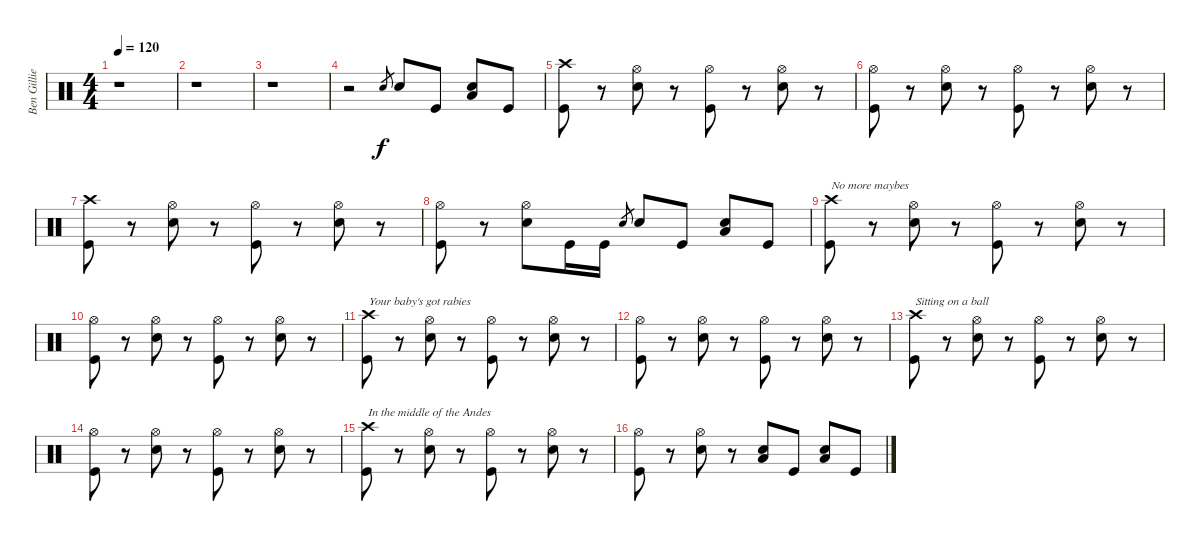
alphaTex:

\track ("Ben Gillies" "Ben Gillie") {instrument percussion}
\staff {score}
\articulation defaults
\ts (4 4)
\tempo 120
\clef neutral
\ks c
r.1{dy f} |
r.1 |
r.1 |
r.2 "Electric Snare (hit)".8{gr} "Electric Snare (hit)".8 "Kick (hit)".8 ("Electric Snare (hit)" "Low Floor Tom (hit)").8 "Kick (hit)".8 |
("Crash high (hit)" "Kick (hit)").8 r.8 ("Electric Snare (hit)" "Hi-Hat (open)").8 r.8 ("Hi-Hat (open)" "Kick (hit)").8 r.8 ("Electric Snare (hit)" "Hi-Hat (open)").8 r.8 |
("Hi-Hat (open)" "Kick (hit)").8 r.8 ("Electric Snare (hit)" "Hi-Hat (open)").8 r.8 ("Hi-Hat (open)" "Kick (hit)").8 r.8 ("Electric Snare (hit)" "Hi-Hat (open)").8 r.8 |
("Crash high (hit)" "Kick (hit)").8 r.8 ("Electric Snare (hit)" "Hi-Hat (open)").8 r.8 ("Hi-Hat (open)" "Kick (hit)").8 r.8 ("Electric Snare (hit)" "Hi-Hat (open)").8 r.8 |
("Hi-Hat (open)" "Kick (hit)").8 r.8 ("Electric Snare (hit)" "Hi-Hat (open)").8 "Kick (hit)".16 "Kick (hit)".16 "Electric Snare (hit)".8{gr} "Electric Snare (hit)".8 "Kick (hit)".8 ("Electric Snare (hit)" "Low Floor Tom (hit)").8 "Kick (hit)".8 |
("Crash high (hit)" "Kick (hit)").8{txt "No more maybes"} r.8 ("Electric Snare (hit)" "Hi-Hat (open)").8 r.8 ("Hi-Hat (open)" "Kick (hit)").8 r.8 ("Electric Snare (hit)" "Hi-Hat (open)").8 r.8 |
("Hi-Hat (open)" "Kick (hit)").8 r.8 ("Electric Snare (hit)" "Hi-Hat (open)").8 r.8 ("Hi-Hat (open)" "Kick (hit)").8 r.8 ("Electric Snare (hit)" "Hi-Hat (open)").8 r.8 |
("Crash high (hit)" "Kick (hit)").8{txt "Your baby's got rabies"} r.8 ("Electric Snare (hit)" "Hi-Hat (open)").8 r.8 ("Hi-Hat (open)" "Kick (hit)").8 r.8 ("Electric Snare (hit)" "Hi-Hat (open)").8 r.8 |
("Hi-Hat (open)" "Kick (hit)").8 r.8 ("Electric Snare (hit)" "Hi-Hat (open)").8 r.8 ("Hi-Hat (open)" "Kick (hit)").8 r.8 ("Electric Snare (hit)" "Hi-Hat (open)").8 r.8 |
("Crash high (hit)" "Kick (hit)").8{txt "Sitting on a ball"} r.8 ("Electric Snare (hit)" "Hi-Hat (open)").8 r.8 ("Hi-Hat (open)" "Kick (hit)").8 r.8 ("Electric Snare (hit)" "Hi-Hat (open)").8 r.8 |
("Hi-Hat (open)" "Kick (hit)").8 r.8 ("Electric Snare (hit)" "Hi-Hat (open)").8 r.8 ("Hi-Hat (open)" "Kick (hit)").8 r.8 ("Electric Snare (hit)" "Hi-Hat (open)").8 r.8 |
("Crash high (hit)" "Kick (hit)").8{txt "In the middle of the Andes"} r.8 ("Electric Snare (hit)" "Hi-Hat (open)").8 r.8 ("Hi-Hat (open)" "Kick (hit)").8 r.8 ("Electric Snare (hit)" "Hi-Hat (open)").8 r.8 |
("Hi-Hat (open)" "Kick (hit)").8 r.8 ("Electric Snare (hit)" "Hi-Hat (open)").8 r.8 ("Low Tom (hit)" "Electric Snare (hit)").8 "Kick (hit)".8 ("Low Floor Tom (hit)" "Electric Snare (hit)").8 "Kick (hit)".8
